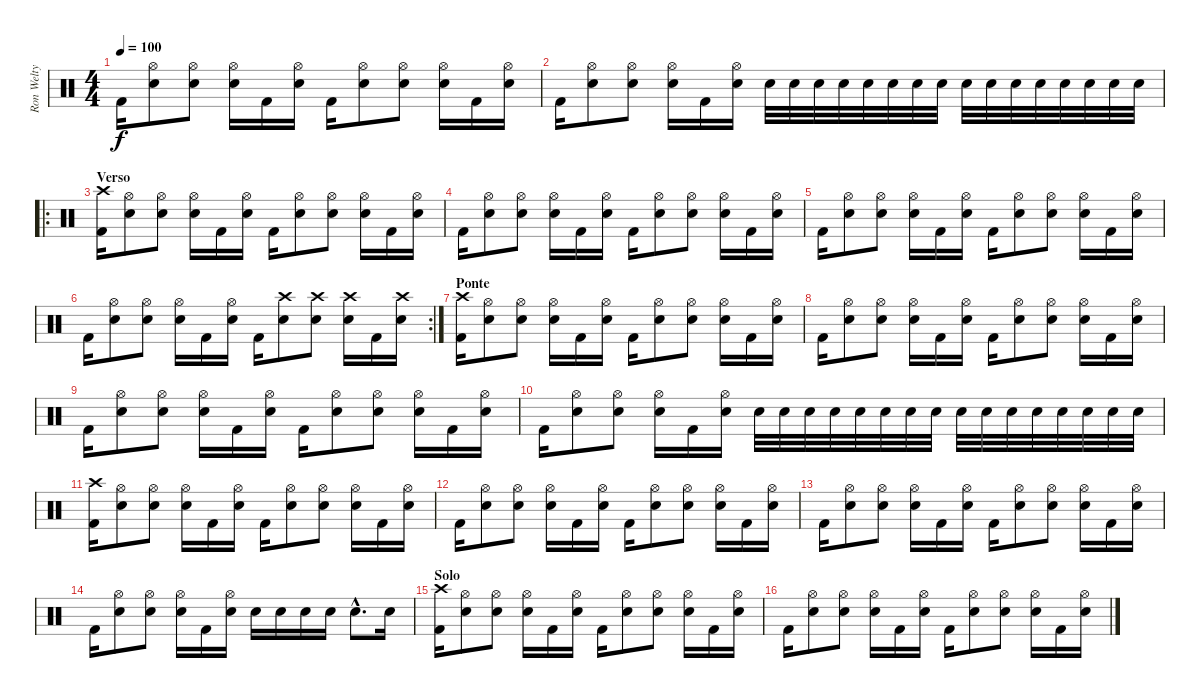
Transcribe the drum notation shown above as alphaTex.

\track ("Ron Welty" "Ron Welty") {instrument percussion}
\staff {score}
\articulation defaults
\ts (4 4)
\tempo 100
\clef neutral
\ks c "Kick (hit) 2".16{dy f}
("Hi-Hat (open)" "Snare (hit) 2").8 ("Hi-Hat (open)" "Snare (hit) 2").8 ("Hi-Hat (open)" "Snare (hit) 2").16 "Kick (hit) 2".16 ("Hi-Hat (open)" "Snare (hit) 2").16 "Kick (hit) 2".16 ("Hi-Hat (open)" "Snare (hit) 2").8 ("Hi-Hat (open)" "Snare (hit) 2").8 ("Hi-Hat (open)" "Snare (hit) 2").16 "Kick (hit) 2".16 ("Hi-Hat (open)" "Snare (hit) 2").16 |
"Kick (hit) 2".16 ("Hi-Hat (open)" "Snare (hit) 2").8 ("Hi-Hat (open)" "Snare (hit) 2").8 ("Hi-Hat (open)" "Snare (hit) 2").16 "Kick (hit) 2".16 ("Hi-Hat (open)" "Snare (hit) 2").16 "Snare (hit) 2".32 "Snare (hit) 2".32 "Snare (hit) 2".32 "Snare (hit) 2".32 "Snare (hit) 2".32 "Snare (hit) 2".32 "Snare (hit) 2".32 "Snare (hit) 2".32 "Snare (hit) 2".32 "Snare (hit) 2".32 "Snare (hit) 2".32 "Snare (hit) 2".32 "Snare (hit) 2".32 "Snare (hit) 2".32 "Snare (hit) 2".32 "Snare (hit) 2".32 |
\ro
\section ("" "Verso")
("Crash high (hit)" "Kick (hit) 2").16 ("Hi-Hat (open)" "Snare (hit) 2").8 ("Hi-Hat (open)" "Snare (hit) 2").8 ("Hi-Hat (open)" "Snare (hit) 2").16 "Kick (hit) 2".16 ("Hi-Hat (open)" "Snare (hit) 2").16 "Kick (hit) 2".16 ("Hi-Hat (open)" "Snare (hit) 2").8 ("Hi-Hat (open)" "Snare (hit) 2").8 ("Hi-Hat (open)" "Snare (hit) 2").16 "Kick (hit) 2".16 ("Hi-Hat (open)" "Snare (hit) 2").16 |
"Kick (hit) 2".16 ("Hi-Hat (open)" "Snare (hit) 2").8 ("Hi-Hat (open)" "Snare (hit) 2").8 ("Hi-Hat (open)" "Snare (hit) 2").16 "Kick (hit) 2".16 ("Hi-Hat (open)" "Snare (hit) 2").16 "Kick (hit) 2".16 ("Hi-Hat (open)" "Snare (hit) 2").8 ("Hi-Hat (open)" "Snare (hit) 2").8 ("Hi-Hat (open)" "Snare (hit) 2").16 "Kick (hit) 2".16 ("Hi-Hat (open)" "Snare (hit) 2").16 |
"Kick (hit) 2".16 ("Hi-Hat (open)" "Snare (hit) 2").8 ("Hi-Hat (open)" "Snare (hit) 2").8 ("Hi-Hat (open)" "Snare (hit) 2").16 "Kick (hit) 2".16 ("Hi-Hat (open)" "Snare (hit) 2").16 "Kick (hit) 2".16 ("Hi-Hat (open)" "Snare (hit) 2").8 ("Hi-Hat (open)" "Snare (hit) 2").8 ("Hi-Hat (open)" "Snare (hit) 2").16 "Kick (hit) 2".16 ("Hi-Hat (open)" "Snare (hit) 2").16 |
\rc 2 "Kick (hit) 2".16
("Hi-Hat (open)" "Snare (hit) 2").8 ("Hi-Hat (open)" "Snare (hit) 2").8 ("Hi-Hat (open)" "Snare (hit) 2").16 "Kick (hit) 2".16 ("Hi-Hat (open)" "Snare (hit) 2").16 "Kick (hit) 2".16 ("Crash high (hit)" "Snare (hit) 2").8 ("Crash high (hit)" "Snare (hit) 2").8 ("Crash high (hit)" "Snare (hit) 2").16 "Kick (hit) 2".16 ("Crash high (hit)" "Snare (hit) 2").16 |
\section ("" "Ponte")
("Crash high (hit)" "Kick (hit) 2").16 ("Hi-Hat (open)" "Snare (hit) 2").8 ("Hi-Hat (open)" "Snare (hit) 2").8 ("Hi-Hat (open)" "Snare (hit) 2").16 "Kick (hit) 2".16 ("Hi-Hat (open)" "Snare (hit) 2").16 "Kick (hit) 2".16 ("Hi-Hat (open)" "Snare (hit) 2").8 ("Hi-Hat (open)" "Snare (hit) 2").8 ("Hi-Hat (open)" "Snare (hit) 2").16 "Kick (hit) 2".16 ("Hi-Hat (open)" "Snare (hit) 2").16 |
"Kick (hit) 2".16 ("Hi-Hat (open)" "Snare (hit) 2").8 ("Hi-Hat (open)" "Snare (hit) 2").8 ("Hi-Hat (open)" "Snare (hit) 2").16 "Kick (hit) 2".16 ("Hi-Hat (open)" "Snare (hit) 2").16 "Kick (hit) 2".16 ("Hi-Hat (open)" "Snare (hit) 2").8 ("Hi-Hat (open)" "Snare (hit) 2").8 ("Hi-Hat (open)" "Snare (hit) 2").16 "Kick (hit) 2".16 ("Hi-Hat (open)" "Snare (hit) 2").16 |
"Kick (hit) 2".16 ("Hi-Hat (open)" "Snare (hit) 2").8 ("Hi-Hat (open)" "Snare (hit) 2").8 ("Hi-Hat (open)" "Snare (hit) 2").16 "Kick (hit) 2".16 ("Hi-Hat (open)" "Snare (hit) 2").16 "Kick (hit) 2".16 ("Hi-Hat (open)" "Snare (hit) 2").8 ("Hi-Hat (open)" "Snare (hit) 2").8 ("Hi-Hat (open)" "Snare (hit) 2").16 "Kick (hit) 2".16 ("Hi-Hat (open)" "Snare (hit) 2").16 |
"Kick (hit) 2".16 ("Hi-Hat (open)" "Snare (hit) 2").8 ("Hi-Hat (open)" "Snare (hit) 2").8 ("Hi-Hat (open)" "Snare (hit) 2").16 "Kick (hit) 2".16 ("Hi-Hat (open)" "Snare (hit) 2").16 "Snare (hit) 2".32 "Snare (hit) 2".32 "Snare (hit) 2".32 "Snare (hit) 2".32 "Snare (hit) 2".32 "Snare (hit) 2".32 "Snare (hit) 2".32 "Snare (hit) 2".32 "Snare (hit) 2".32 "Snare (hit) 2".32 "Snare (hit) 2".32 "Snare (hit) 2".32 "Snare (hit) 2".32 "Snare (hit) 2".32 "Snare (hit) 2".32 "Snare (hit) 2".32 |
("Crash high (hit)" "Kick (hit) 2").16 ("Hi-Hat (open)" "Snare (hit) 2").8 ("Hi-Hat (open)" "Snare (hit) 2").8 ("Hi-Hat (open)" "Snare (hit) 2").16 "Kick (hit) 2".16 ("Hi-Hat (open)" "Snare (hit) 2").16 "Kick (hit) 2".16 ("Hi-Hat (open)" "Snare (hit) 2").8 ("Hi-Hat (open)" "Snare (hit) 2").8 ("Hi-Hat (open)" "Snare (hit) 2").16 "Kick (hit) 2".16 ("Hi-Hat (open)" "Snare (hit) 2").16 |
"Kick (hit) 2".16 ("Hi-Hat (open)" "Snare (hit) 2").8 ("Hi-Hat (open)" "Snare (hit) 2").8 ("Hi-Hat (open)" "Snare (hit) 2").16 "Kick (hit) 2".16 ("Hi-Hat (open)" "Snare (hit) 2").16 "Kick (hit) 2".16 ("Hi-Hat (open)" "Snare (hit) 2").8 ("Hi-Hat (open)" "Snare (hit) 2").8 ("Hi-Hat (open)" "Snare (hit) 2").16 "Kick (hit) 2".16 ("Hi-Hat (open)" "Snare (hit) 2").16 |
"Kick (hit) 2".16 ("Hi-Hat (open)" "Snare (hit) 2").8 ("Hi-Hat (open)" "Snare (hit) 2").8 ("Hi-Hat (open)" "Snare (hit) 2").16 "Kick (hit) 2".16 ("Hi-Hat (open)" "Snare (hit) 2").16 "Kick (hit) 2".16 ("Hi-Hat (open)" "Snare (hit) 2").8 ("Hi-Hat (open)" "Snare (hit) 2").8 ("Hi-Hat (open)" "Snare (hit) 2").16 "Kick (hit) 2".16 ("Hi-Hat (open)" "Snare (hit) 2").16 |
"Kick (hit) 2".16 ("Hi-Hat (open)" "Snare (hit) 2").8 ("Hi-Hat (open)" "Snare (hit) 2").8 ("Hi-Hat (open)" "Snare (hit) 2").16 "Kick (hit) 2".16 ("Hi-Hat (open)" "Snare (hit) 2").16 "Snare (hit) 2".16 "Snare (hit) 2".16 "Snare (hit) 2".16 "Snare (hit) 2".16 "Snare (hit) 2"{hac}.8{d} "Snare (hit) 2".16 |
\section ("" "Solo")
("Crash high (hit)" "Kick (hit) 2").16 ("Hi-Hat (open)" "Snare (hit) 2").8 ("Hi-Hat (open)" "Snare (hit) 2").8 ("Hi-Hat (open)" "Snare (hit) 2").16 "Kick (hit) 2".16 ("Hi-Hat (open)" "Snare (hit) 2").16 "Kick (hit) 2".16 ("Hi-Hat (open)" "Snare (hit) 2").8 ("Hi-Hat (open)" "Snare (hit) 2").8 ("Hi-Hat (open)" "Snare (hit) 2").16 "Kick (hit) 2".16 ("Hi-Hat (open)" "Snare (hit) 2").16 |
"Kick (hit) 2".16 ("Hi-Hat (open)" "Snare (hit) 2").8 ("Hi-Hat (open)" "Snare (hit) 2").8 ("Hi-Hat (open)" "Snare (hit) 2").16 "Kick (hit) 2".16 ("Hi-Hat (open)" "Snare (hit) 2").16 "Kick (hit) 2".16 ("Hi-Hat (open)" "Snare (hit) 2").8 ("Hi-Hat (open)" "Snare (hit) 2").8 ("Hi-Hat (open)" "Snare (hit) 2").16 "Kick (hit) 2".16 ("Hi-Hat (open)" "Snare (hit) 2").16
